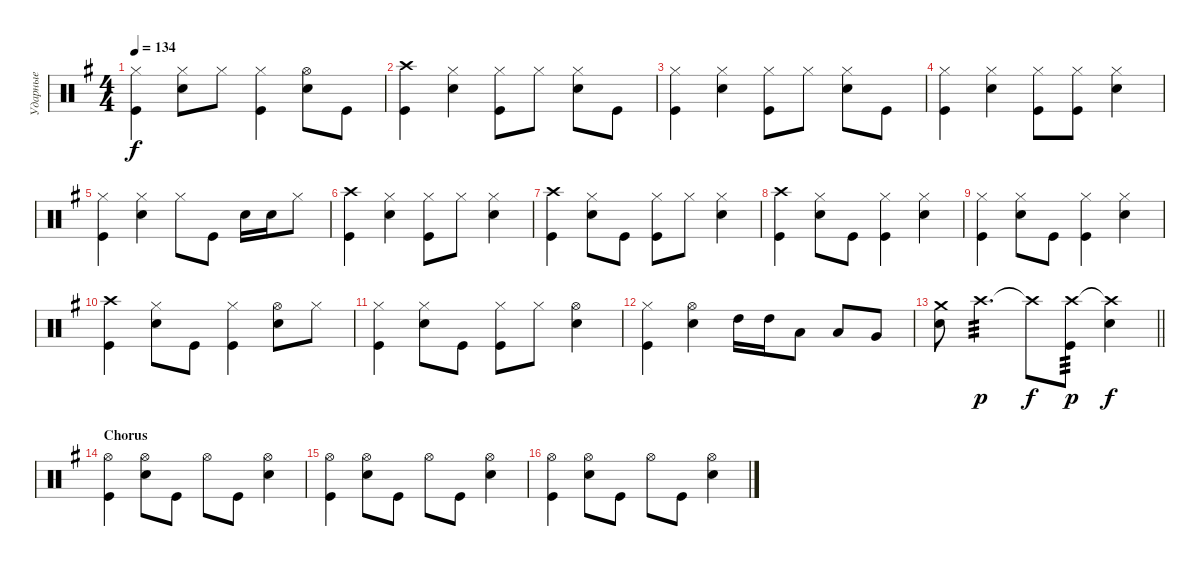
\track ("Ударные" "Ударные") {instrument percussion}
\staff {score}
\articulation defaults
\ts (4 4)
\tempo 134
\clef neutral
\ks eminor
("Hi-Hat (closed)" "Kick (hit)").4{dy f} ("Hi-Hat (closed)" "Snare (hit) 2").8 "Hi-Hat (closed)".8 ("Hi-Hat (closed)" "Kick (hit)").4 ("Hi-Hat (open)" "Snare (hit) 2").8 "Kick (hit)".8 |
("Crash high (hit)" "Kick (hit)").4 ("Hi-Hat (closed)" "Snare (hit) 2").4 ("Hi-Hat (closed)" "Kick (hit)").8 "Hi-Hat (closed)".8 ("Hi-Hat (closed)" "Snare (hit) 2").8 "Kick (hit)".8 |
("Hi-Hat (closed)" "Kick (hit)").4 ("Hi-Hat (closed)" "Snare (hit) 2").4 ("Hi-Hat (closed)" "Kick (hit)").8 "Hi-Hat (closed)".8 ("Hi-Hat (closed)" "Snare (hit) 2").8 "Kick (hit)".8 |
("Hi-Hat (closed)" "Kick (hit)").4 ("Hi-Hat (closed)" "Snare (hit) 2").4 ("Hi-Hat (closed)" "Kick (hit)").8 ("Hi-Hat (closed)" "Kick (hit)").8 ("Hi-Hat (closed)" "Snare (hit) 2").4 |
("Hi-Hat (closed)" "Kick (hit)").4 ("Hi-Hat (closed)" "Snare (hit) 2").4 "Hi-Hat (closed)".8 "Kick (hit)".8 "Snare (hit) 2".16 "Snare (hit) 2".16 "Hi-Hat (closed)".8 |
("Crash high (hit)" "Kick (hit)").4 ("Hi-Hat (closed)" "Snare (hit) 2").4 ("Hi-Hat (closed)" "Kick (hit)").8 "Hi-Hat (closed)".8 ("Hi-Hat (closed)" "Snare (hit) 2").4 |
("Crash high (hit)" "Kick (hit)").4 ("Hi-Hat (closed)" "Snare (hit) 2").8 "Kick (hit)".8 ("Hi-Hat (closed)" "Kick (hit)").8 "Hi-Hat (closed)".8 ("Hi-Hat (closed)" "Snare (hit) 2").4 |
("Crash high (hit)" "Kick (hit)").4 ("Hi-Hat (closed)" "Snare (hit) 2").8 "Kick (hit)".8 ("Hi-Hat (closed)" "Kick (hit)").4 ("Hi-Hat (closed)" "Snare (hit) 2").4 |
("Hi-Hat (closed)" "Kick (hit)").4 ("Hi-Hat (closed)" "Snare (hit) 2").8 "Kick (hit)".8 ("Hi-Hat (closed)" "Kick (hit)").4 ("Hi-Hat (closed)" "Snare (hit) 2").4 |
("Crash high (hit)" "Kick (hit)").4 ("Hi-Hat (closed)" "Snare (hit) 2").8 "Kick (hit)".8 ("Hi-Hat (closed)" "Kick (hit)").4 ("Hi-Hat (open)" "Snare (hit) 2").8 "Hi-Hat (closed)".8 |
("Hi-Hat (closed)" "Kick (hit)").4 ("Hi-Hat (closed)" "Snare (hit) 2").8 "Kick (hit)".8 ("Hi-Hat (closed)" "Kick (hit)").8 "Hi-Hat (closed)".8 ("Hi-Hat (open)" "Snare (hit) 2").4 |
("Kick (hit)" "Hi-Hat (closed)").4 ("Hi-Hat (open)" "Snare (hit) 2").4 "High Tom (hit)".16 "High Tom (hit)".16 "Low Tom (hit)".8 "Low Tom (hit)".8 "Very Low Tom (hit)".8 |
\barLineRight lightlight
("Crash medium (hit)" "Snare (hit) 2").8 "Crash high (hit)".4{d tp 3 dy p} "Crash high (hit)"{t}.8{dy f} ("Kick (hit)" "Crash high (hit)").8{tp 3 dy p} ("Snare (hit) 2" "Crash high (hit)"{t}).4{dy f} |
\section ("" "Chorus")
("Kick (hit)" "Hi-Hat (open)").4{volume 14} ("Snare (hit) 2" "Hi-Hat (open)").8 "Kick (hit)".8 "Hi-Hat (open)".8 "Kick (hit)".8 ("Snare (hit) 2" "Hi-Hat (open)").4 |
("Kick (hit)" "Hi-Hat (open)").4 ("Snare (hit) 2" "Hi-Hat (open)").8 "Kick (hit)".8 "Hi-Hat (open)".8 "Kick (hit)".8 ("Snare (hit) 2" "Hi-Hat (open)").4 |
("Kick (hit)" "Hi-Hat (open)").4 ("Snare (hit) 2" "Hi-Hat (open)").8 "Kick (hit)".8 "Hi-Hat (open)".8 "Kick (hit)".8 ("Snare (hit) 2" "Hi-Hat (open)").4
